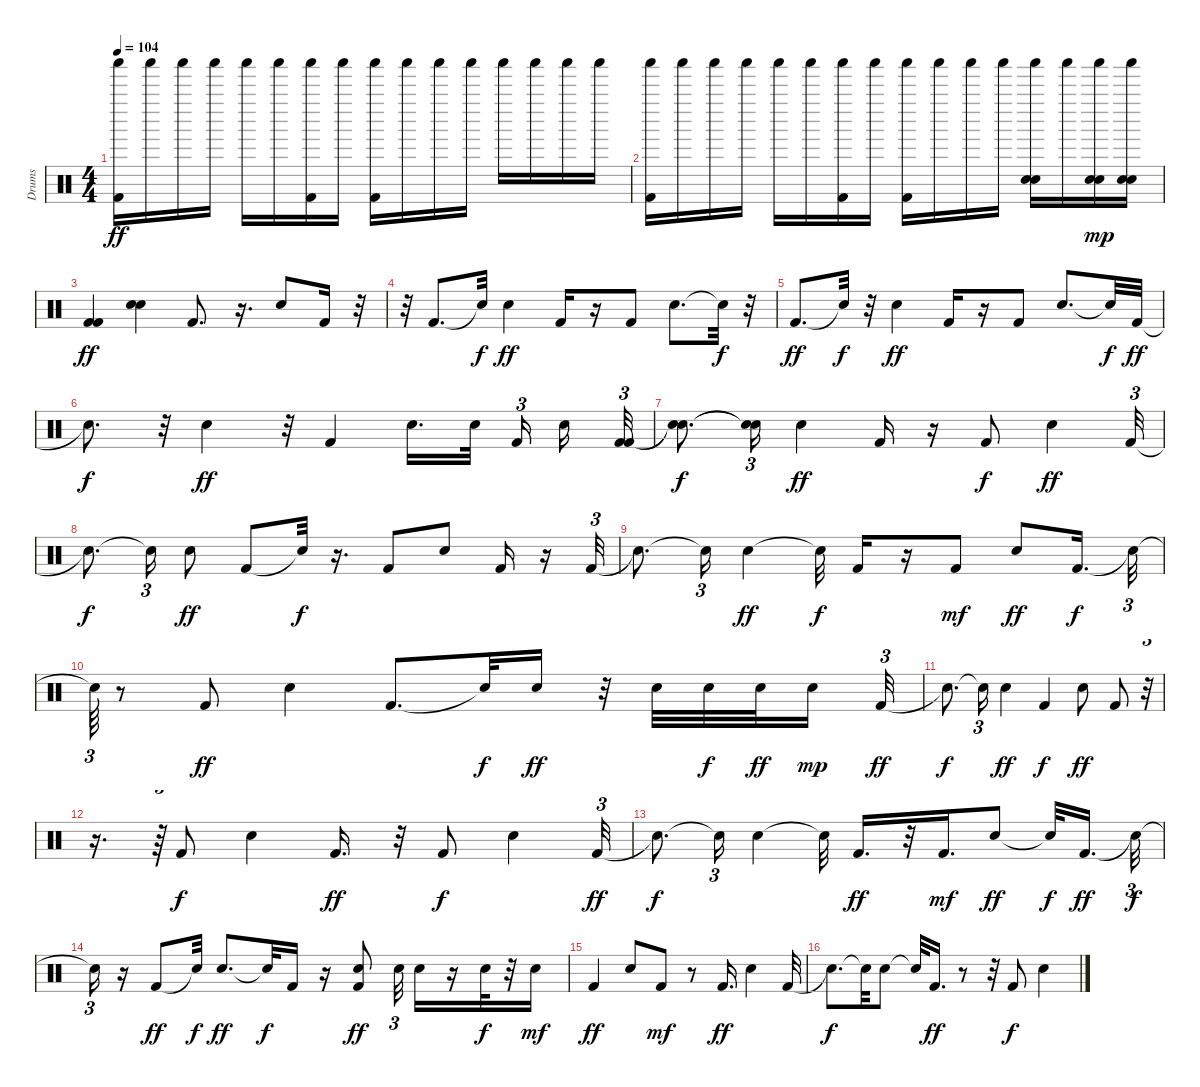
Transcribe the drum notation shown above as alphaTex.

\track ("Drums" "Drums") {instrument percussion}
\staff {score}
\articulation defaults
\ts (4 4)
\tempo 104
\clef neutral
\ks c
("Shaker (hit)" "Kick (hit) 2").16{dy ff volume 16} "Shaker (hit)".16 "Shaker (hit)".16 "Shaker (hit)".16 "Shaker (hit)".16 "Shaker (hit)".16 ("Kick (hit) 2" "Shaker (hit)").16 "Shaker (hit)".16 ("Kick (hit) 2" "Shaker (hit)").16 "Shaker (hit)".16 "Shaker (hit)".16 "Shaker (hit)".16 "Shaker (hit)".16 "Shaker (hit)".16 "Shaker (hit)".16 "Shaker (hit)".16 |
("Kick (hit) 2" "Shaker (hit)").16 "Shaker (hit)".16 "Shaker (hit)".16 "Shaker (hit)".16 "Shaker (hit)".16 "Shaker (hit)".16 ("Shaker (hit)" "Kick (hit) 2").16 "Shaker (hit)".16 ("Shaker (hit)" "Kick (hit) 2").16 "Shaker (hit)".16 "Shaker (hit)".16 "Shaker (hit)".16 ("Shaker (hit)" "Snare (hit) 2" "Snare (hit) 2").16 "Shaker (hit)".16 ("Shaker (hit)" "Snare (hit) 2" "Snare (hit) 2").16{dy mp} ("Snare (hit) 2" "Shaker (hit)" "Snare (hit) 2").16 |
("Kick (hit) 2" "Kick (hit) 2").4{dy ff} ("Snare (hit) 2" "Snare (hit) 2").4 "Kick (hit) 2".8{d} r.16{d} "Snare (hit) 2".8 "Kick (hit) 2".16 r.32 |
r.32 "Kick (hit) 2".8{d} "Snare (hit)"{t}.32{dy f} "Snare (hit) 2".4{dy ff} "Kick (hit) 2".16 r.16 "Kick (hit) 2".8 "Snare (hit) 2".8{d} "Snare (hit)"{t}.32{dy f} r.32 |
"Kick (hit) 2".8{d dy ff} "Snare (hit)"{t}.32{dy f} r.32 "Snare (hit) 2".4{dy ff} "Kick (hit) 2".16 r.16 "Kick (hit) 2".8 "Snare (hit) 2".8{d} "Snare (hit)"{t}.32{dy f} "Kick (hit) 2".32{dy ff} |
"Snare (hit)"{t}.8{d dy f} r.32 "Snare (hit) 2".4{dy ff} r.32 "Kick (hit) 2".4 "Snare (hit) 2".16{d} "Snare (hit) 2".32{beam splitsecondary} "Kick (hit) 2".16{tu (3 2) beam splitsecondary} "Snare (hit) 2".16 ("Kick (hit) 2" "Kick (hit) 2").32{tu (3 2)} |
("Snare (hit)"{t} "Snare (hit)"{t}).8{d dy f} ("Snare (hit)"{t} "Snare (hit)"{t}).16{tu (3 2)} "Snare (hit) 2".4{dy ff} "Kick (hit) 2".16 r.16 "Kick (hit) 2".8{dy f} "Snare (hit) 2".4{dy ff} "Kick (hit) 2".32{tu (3 2)} |
"Snare (hit)"{t}.8{d dy f} "Snare (hit)"{t}.16{tu (3 2)} "Snare (hit) 2".8{dy ff} "Kick (hit) 2".8 "Snare (hit)"{t}.32{dy f} r.16{d} "Kick (hit) 2".8 "Snare (hit) 2".8 "Kick (hit) 2".16 r.16 "Kick (hit) 2".32{tu (3 2)} |
"Snare (hit)"{t}.8{d} "Snare (hit)"{t}.16{tu (3 2)} "Snare (hit) 2".4{dy ff} "Snare (hit)"{t}.32{dy f} "Kick (hit) 2".16 r.16 "Kick (hit) 2".8{dy mf} "Snare (hit) 2".8{dy ff} "Kick (hit) 2".16{d dy f} "Snare (hit)"{t}.32{tu (3 2)} |
"Snare (hit)"{t}.64{tu (3 2)} r.8 "Kick (hit) 2".8{dy ff} "Snare (hit) 2".4 "Kick (hit) 2".8{d} "Snare (hit)"{t}.32{dy f} "Snare (hit) 2".16{dy ff} r.32 "Snare (hit) 2".32 "Snare (hit) 2".32{dy f} "Snare (hit) 2".32{dy ff} "Snare (hit) 2".16{dy mp beam splitsecondary} "Kick (hit) 2".32{tu (3 2) dy ff} |
"Snare (hit)"{t}.8{d dy f} "Snare (hit)"{t}.16{tu (3 2)} "Snare (hit) 2".4{dy ff} "Kick (hit) 2".4{dy f} "Snare (hit) 2".8{dy ff} "Kick (hit) 2".8 r.32{tu (3 2)} |
r.16{d} r.64{tu (3 2)} "Kick (hit) 2".8{dy f} "Snare (hit) 2".4 "Kick (hit) 2".16{d dy ff} r.32 "Kick (hit) 2".8{dy f} "Snare (hit) 2".4 "Kick (hit) 2".32{tu (3 2) dy ff} |
"Snare (hit)"{t}.8{d dy f} "Snare (hit)"{t}.16{tu (3 2)} "Snare (hit) 2".4 "Snare (hit)"{t}.32 "Kick (hit) 2".16{d dy ff} r.32 "Kick (hit) 2".16{d dy mf} "Snare (hit) 2".8{dy ff} "Snare (hit)"{t}.32{dy f} "Kick (hit) 2".16{d dy ff beam splitsecondary} "Snare (hit)"{t}.32{tu (3 2) dy f} |
"Snare (hit)"{t}.16{tu (3 2)} r.16 "Kick (hit) 2".8{dy ff} "Snare (hit)"{t}.32{dy f} "Snare (hit) 2".8{d dy ff} "Snare (hit)"{t}.32{dy f} "Kick (hit) 2".16 r.16 ("Snare (hit) 2" "Kick (hit) 2").8{dy ff} "Snare (hit) 2".32{tu (3 2)} "Snare (hit) 2".16 r.16 "Snare (hit) 2".32{dy f} r.32 "Snare (hit) 2".16{dy mf} |
"Kick (hit) 2".4{dy ff} "Snare (hit) 2".8 "Kick (hit) 2".8{dy mf} r.8 "Kick (hit) 2".16{d dy ff} "Snare (hit) 2".4 "Kick (hit) 2".32 |
"Snare (hit)"{t}.8{d dy f} "Snare (hit)"{t}.32 "Snare (hit) 2".8 "Snare (hit)"{t}.32 "Kick (hit) 2".16{d dy ff} r.8 r.32 "Kick (hit) 2".8{dy f} "Snare (hit) 2".4
